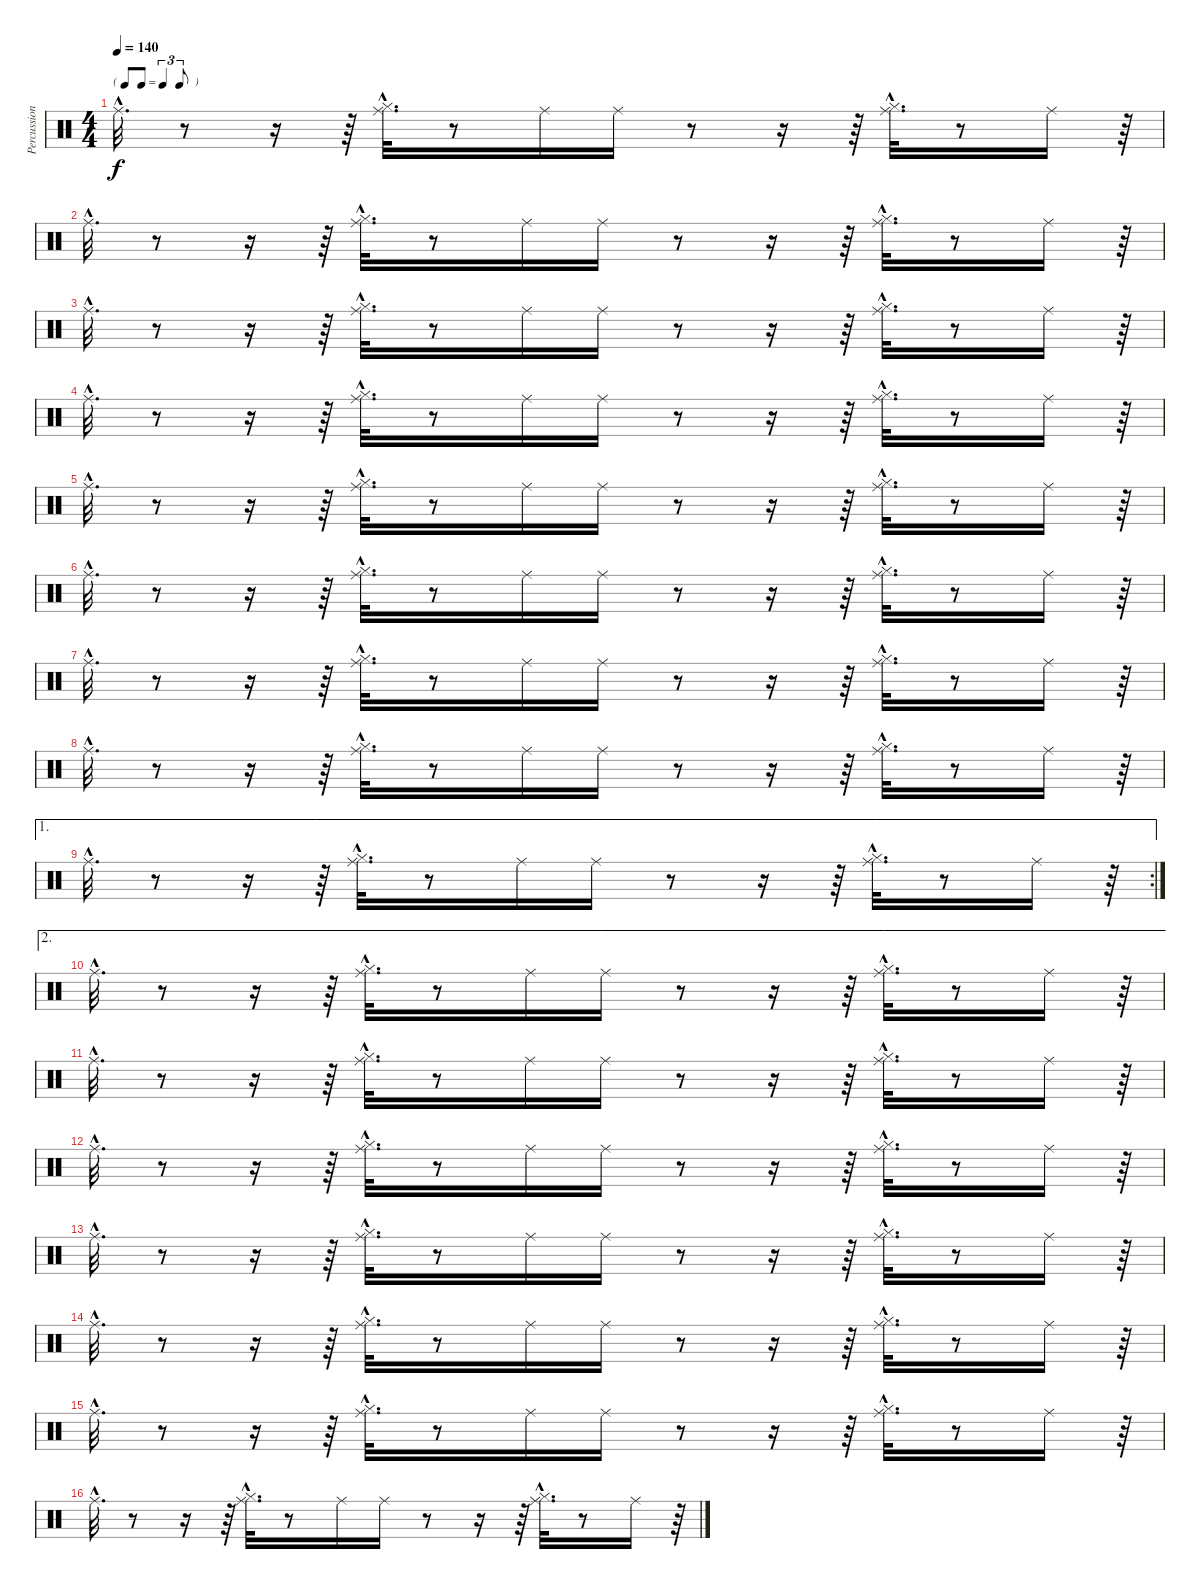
\track ("Percussions" "Percussion") {instrument percussion}
\staff {score}
\articulation defaults
\ts (4 4)
\tf triplet8th
\tempo 140
\clef neutral
\ks c "Ride (middle)"{hac}.32{d dy f}
r.8 r.16 r.64 ("Hi-Hat (closed)"{hac} "Ride (middle)"{hac}).32{d} r.8 "Ride (middle)".16 "Ride (middle)".16 r.8 r.16 r.64 ("Hi-Hat (closed)"{hac} "Ride (middle)"{hac}).32{d} r.8 "Ride (middle)".16 r.64 |
"Ride (middle)"{hac}.32{d} r.8 r.16 r.64 ("Hi-Hat (closed)"{hac} "Ride (middle)"{hac}).32{d} r.8 "Ride (middle)".16 "Ride (middle)".16 r.8 r.16 r.64 ("Hi-Hat (closed)"{hac} "Ride (middle)"{hac}).32{d} r.8 "Ride (middle)".16 r.64 |
"Ride (middle)"{hac}.32{d} r.8 r.16 r.64 ("Hi-Hat (closed)"{hac} "Ride (middle)"{hac}).32{d} r.8 "Ride (middle)".16 "Ride (middle)".16 r.8 r.16 r.64 ("Hi-Hat (closed)"{hac} "Ride (middle)"{hac}).32{d} r.8 "Ride (middle)".16 r.64 |
"Ride (middle)"{hac}.32{d} r.8 r.16 r.64 ("Hi-Hat (closed)"{hac} "Ride (middle)"{hac}).32{d} r.8 "Ride (middle)".16 "Ride (middle)".16 r.8 r.16 r.64 ("Hi-Hat (closed)"{hac} "Ride (middle)"{hac}).32{d} r.8 "Ride (middle)".16 r.64 |
"Ride (middle)"{hac}.32{d} r.8 r.16 r.64 ("Hi-Hat (closed)"{hac} "Ride (middle)"{hac}).32{d} r.8 "Ride (middle)".16 "Ride (middle)".16 r.8 r.16 r.64 ("Hi-Hat (closed)"{hac} "Ride (middle)"{hac}).32{d} r.8 "Ride (middle)".16 r.64 |
"Ride (middle)"{hac}.32{d} r.8 r.16 r.64 ("Hi-Hat (closed)"{hac} "Ride (middle)"{hac}).32{d} r.8 "Ride (middle)".16 "Ride (middle)".16 r.8 r.16 r.64 ("Hi-Hat (closed)"{hac} "Ride (middle)"{hac}).32{d} r.8 "Ride (middle)".16 r.64 |
"Ride (middle)"{hac}.32{d} r.8 r.16 r.64 ("Hi-Hat (closed)"{hac} "Ride (middle)"{hac}).32{d} r.8 "Ride (middle)".16 "Ride (middle)".16 r.8 r.16 r.64 ("Hi-Hat (closed)"{hac} "Ride (middle)"{hac}).32{d} r.8 "Ride (middle)".16 r.64 |
"Ride (middle)"{hac}.32{d} r.8 r.16 r.64 ("Hi-Hat (closed)"{hac} "Ride (middle)"{hac}).32{d} r.8 "Ride (middle)".16 "Ride (middle)".16 r.8 r.16 r.64 ("Hi-Hat (closed)"{hac} "Ride (middle)"{hac}).32{d} r.8 "Ride (middle)".16 r.64 |
\ae 1
\rc 2 "Ride (middle)"{hac}.32{d}
r.8 r.16 r.64 ("Hi-Hat (closed)"{hac} "Ride (middle)"{hac}).32{d} r.8 "Ride (middle)".16 "Ride (middle)".16 r.8 r.16 r.64 ("Hi-Hat (closed)"{hac} "Ride (middle)"{hac}).32{d} r.8 "Ride (middle)".16 r.64 |
\ae 2 "Ride (middle)"{hac}.32{d}
r.8 r.16 r.64 ("Hi-Hat (closed)"{hac} "Ride (middle)"{hac}).32{d} r.8 "Ride (middle)".16 "Ride (middle)".16 r.8 r.16 r.64 ("Hi-Hat (closed)"{hac} "Ride (middle)"{hac}).32{d} r.8 "Ride (middle)".16 r.64 |
"Ride (middle)"{hac}.32{d} r.8 r.16 r.64 ("Hi-Hat (closed)"{hac} "Ride (middle)"{hac}).32{d} r.8 "Ride (middle)".16 "Ride (middle)".16 r.8 r.16 r.64 ("Hi-Hat (closed)"{hac} "Ride (middle)"{hac}).32{d} r.8 "Ride (middle)".16 r.64 |
"Ride (middle)"{hac}.32{d} r.8 r.16 r.64 ("Hi-Hat (closed)"{hac} "Ride (middle)"{hac}).32{d} r.8 "Ride (middle)".16 "Ride (middle)".16 r.8 r.16 r.64 ("Hi-Hat (closed)"{hac} "Ride (middle)"{hac}).32{d} r.8 "Ride (middle)".16 r.64 |
"Ride (middle)"{hac}.32{d} r.8 r.16 r.64 ("Hi-Hat (closed)"{hac} "Ride (middle)"{hac}).32{d} r.8 "Ride (middle)".16 "Ride (middle)".16 r.8 r.16 r.64 ("Hi-Hat (closed)"{hac} "Ride (middle)"{hac}).32{d} r.8 "Ride (middle)".16 r.64 |
"Ride (middle)"{hac}.32{d} r.8 r.16 r.64 ("Hi-Hat (closed)"{hac} "Ride (middle)"{hac}).32{d} r.8 "Ride (middle)".16 "Ride (middle)".16 r.8 r.16 r.64 ("Hi-Hat (closed)"{hac} "Ride (middle)"{hac}).32{d} r.8 "Ride (middle)".16 r.64 |
"Ride (middle)"{hac}.32{d} r.8 r.16 r.64 ("Hi-Hat (closed)"{hac} "Ride (middle)"{hac}).32{d} r.8 "Ride (middle)".16 "Ride (middle)".16 r.8 r.16 r.64 ("Hi-Hat (closed)"{hac} "Ride (middle)"{hac}).32{d} r.8 "Ride (middle)".16 r.64 |
"Ride (middle)"{hac}.32{d} r.8 r.16 r.64 ("Hi-Hat (closed)"{hac} "Ride (middle)"{hac}).32{d} r.8 "Ride (middle)".16 "Ride (middle)".16 r.8 r.16 r.64 ("Hi-Hat (closed)"{hac} "Ride (middle)"{hac}).32{d} r.8 "Ride (middle)".16 r.64
